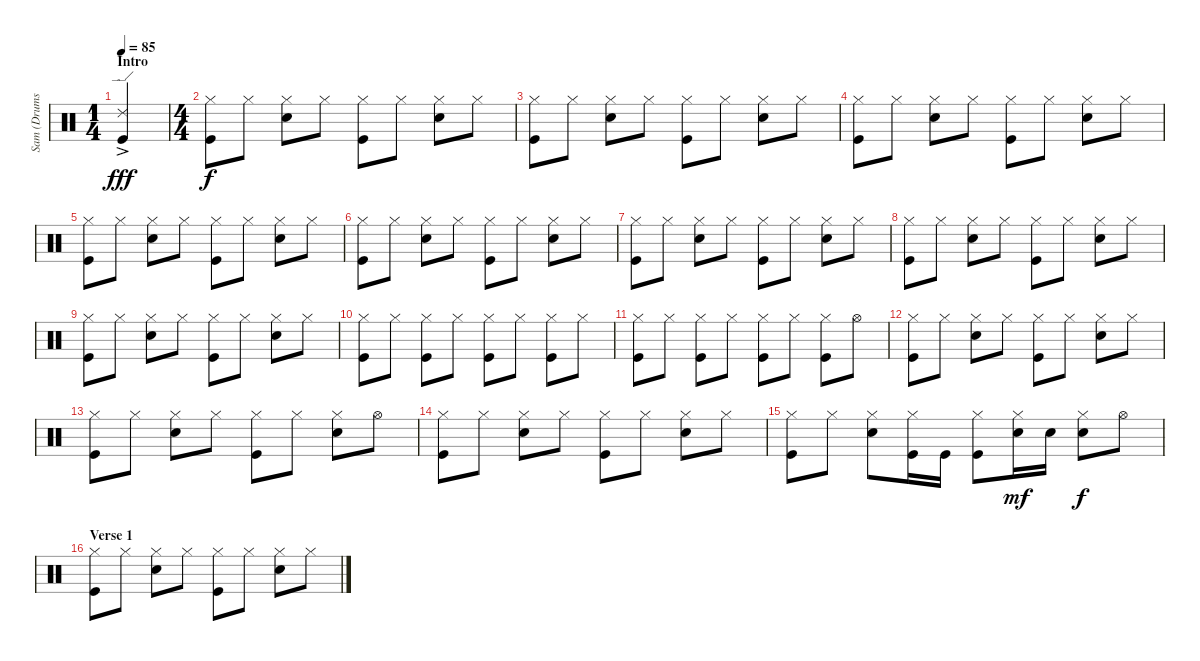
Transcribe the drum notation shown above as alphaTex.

\track ("Sam (Drums)" "Sam (Drums") {instrument percussion}
\staff {score}
\articulation defaults
\ts (1 4)
\section ("" "Intro")
\tempo 85
\clef neutral
\ks c
("Ride (edge) 2"{ac} "Kick (hit)"{ac}).4{dy fff} |
\ts (4 4)
("Hi-Hat (closed)" "Kick (hit)").8{dy f} "Hi-Hat (closed)".8 ("Hi-Hat (closed)" "Snare (hit) 2").8 "Hi-Hat (closed)".8 ("Hi-Hat (closed)" "Kick (hit)").8 "Hi-Hat (closed)".8 ("Hi-Hat (closed)" "Snare (hit) 2").8 "Hi-Hat (closed)".8 |
("Hi-Hat (closed)" "Kick (hit)").8 "Hi-Hat (closed)".8 ("Hi-Hat (closed)" "Snare (hit) 2").8 "Hi-Hat (closed)".8 ("Hi-Hat (closed)" "Kick (hit)").8 "Hi-Hat (closed)".8 ("Hi-Hat (closed)" "Snare (hit) 2").8 "Hi-Hat (closed)".8 |
("Hi-Hat (closed)" "Kick (hit)").8 "Hi-Hat (closed)".8 ("Hi-Hat (closed)" "Snare (hit) 2").8 "Hi-Hat (closed)".8 ("Hi-Hat (closed)" "Kick (hit)").8 "Hi-Hat (closed)".8 ("Hi-Hat (closed)" "Snare (hit) 2").8 "Hi-Hat (closed)".8 |
("Hi-Hat (closed)" "Kick (hit)").8 "Hi-Hat (closed)".8 ("Hi-Hat (closed)" "Snare (hit) 2").8 "Hi-Hat (closed)".8 ("Hi-Hat (closed)" "Kick (hit)").8 "Hi-Hat (closed)".8 ("Hi-Hat (closed)" "Snare (hit) 2").8 "Hi-Hat (closed)".8 |
("Hi-Hat (closed)" "Kick (hit)").8 "Hi-Hat (closed)".8 ("Hi-Hat (closed)" "Snare (hit) 2").8 "Hi-Hat (closed)".8 ("Hi-Hat (closed)" "Kick (hit)").8 "Hi-Hat (closed)".8 ("Hi-Hat (closed)" "Snare (hit) 2").8 "Hi-Hat (closed)".8 |
("Hi-Hat (closed)" "Kick (hit)").8 "Hi-Hat (closed)".8 ("Hi-Hat (closed)" "Snare (hit) 2").8 "Hi-Hat (closed)".8 ("Hi-Hat (closed)" "Kick (hit)").8 "Hi-Hat (closed)".8 ("Hi-Hat (closed)" "Snare (hit) 2").8 "Hi-Hat (closed)".8 |
("Hi-Hat (closed)" "Kick (hit)").8 "Hi-Hat (closed)".8 ("Hi-Hat (closed)" "Snare (hit) 2").8 "Hi-Hat (closed)".8 ("Hi-Hat (closed)" "Kick (hit)").8 "Hi-Hat (closed)".8 ("Hi-Hat (closed)" "Snare (hit) 2").8 "Hi-Hat (closed)".8 |
("Hi-Hat (closed)" "Kick (hit)").8 "Hi-Hat (closed)".8 ("Hi-Hat (closed)" "Snare (hit) 2").8 "Hi-Hat (closed)".8 ("Hi-Hat (closed)" "Kick (hit)").8 "Hi-Hat (closed)".8 ("Hi-Hat (closed)" "Snare (hit) 2").8 "Hi-Hat (closed)".8 |
("Hi-Hat (closed)" "Kick (hit)").8 "Hi-Hat (closed)".8 ("Hi-Hat (closed)" "Kick (hit)").8 "Hi-Hat (closed)".8 ("Hi-Hat (closed)" "Kick (hit)").8 "Hi-Hat (closed)".8 ("Hi-Hat (closed)" "Kick (hit)").8 "Hi-Hat (closed)".8 |
("Hi-Hat (closed)" "Kick (hit)").8 "Hi-Hat (closed)".8 ("Hi-Hat (closed)" "Kick (hit)").8 "Hi-Hat (closed)".8 ("Hi-Hat (closed)" "Kick (hit)").8 "Hi-Hat (closed)".8 ("Hi-Hat (closed)" "Kick (hit)").8 "Hi-Hat (open)".8 |
("Hi-Hat (closed)" "Kick (hit)").8 "Hi-Hat (closed)".8 ("Hi-Hat (closed)" "Snare (hit) 2").8 "Hi-Hat (closed)".8 ("Hi-Hat (closed)" "Kick (hit)").8 "Hi-Hat (closed)".8 ("Hi-Hat (closed)" "Snare (hit) 2").8 "Hi-Hat (closed)".8 |
("Hi-Hat (closed)" "Kick (hit)").8 "Hi-Hat (closed)".8 ("Hi-Hat (closed)" "Snare (hit) 2").8 "Hi-Hat (closed)".8 ("Hi-Hat (closed)" "Kick (hit)").8 "Hi-Hat (closed)".8 ("Hi-Hat (closed)" "Snare (hit) 2").8 "Hi-Hat (open)".8 |
("Hi-Hat (closed)" "Kick (hit)").8 "Hi-Hat (closed)".8 ("Hi-Hat (closed)" "Snare (hit) 2").8 "Hi-Hat (closed)".8 ("Hi-Hat (closed)" "Kick (hit)").8 "Hi-Hat (closed)".8 ("Hi-Hat (closed)" "Snare (hit) 2").8 "Hi-Hat (closed)".8 |
("Hi-Hat (closed)" "Kick (hit)").8 "Hi-Hat (closed)".8 ("Hi-Hat (closed)" "Snare (hit) 2").8 ("Hi-Hat (closed)" "Kick (hit)").16 "Kick (hit)".16 ("Hi-Hat (closed)" "Kick (hit)").8 ("Hi-Hat (closed)" "Snare (hit) 2").16{dy mf} "Snare (hit) 2".16 ("Hi-Hat (closed)" "Snare (hit) 2").8{dy f} "Hi-Hat (open)".8 |
\section ("" "Verse 1")
("Hi-Hat (closed)" "Kick (hit)").8 "Hi-Hat (closed)".8 ("Hi-Hat (closed)" "Snare (hit) 2").8 "Hi-Hat (closed)".8 ("Hi-Hat (closed)" "Kick (hit)").8 "Hi-Hat (closed)".8 ("Hi-Hat (closed)" "Snare (hit) 2").8 "Hi-Hat (closed)".8
